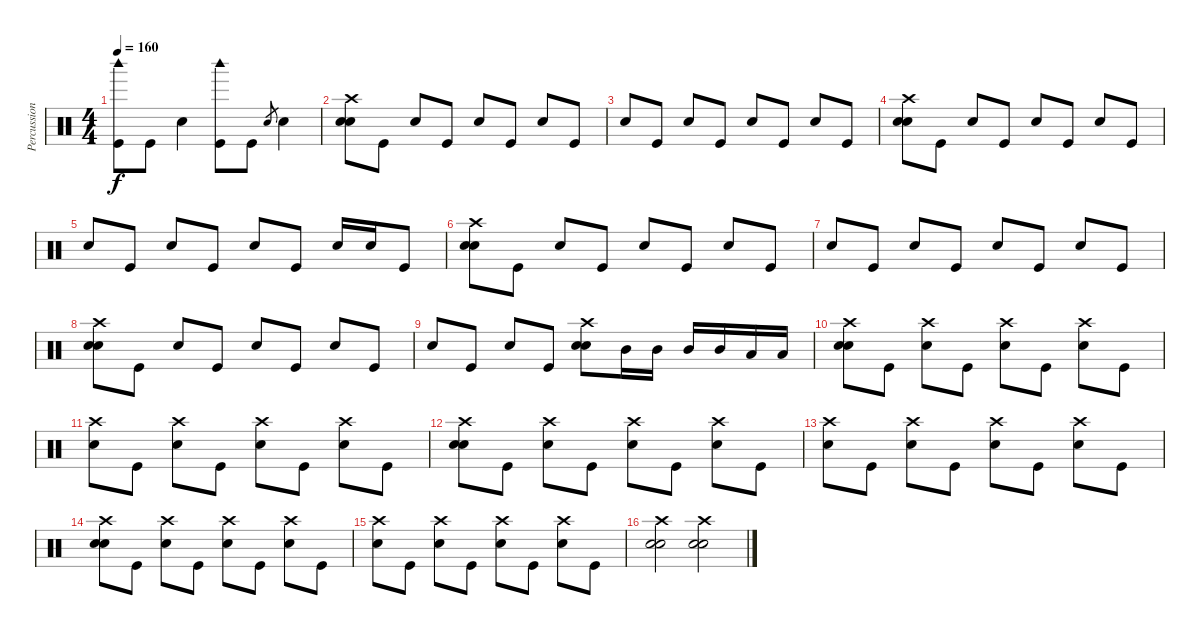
\track ("Percussion" "Percussion") {instrument percussion}
\staff {score}
\articulation defaults
\ts (4 4)
\tempo 160
\clef neutral
\ks c
("Woodblock high (hit)" "Kick (hit)").8{dy f} "Kick (hit)".8 "Snare (hit) 2".4 ("Woodblock high (hit)" "Kick (hit)").8 "Kick (hit)".8 "Electric Snare (hit)".8{gr} "Snare (hit) 2".4 |
("Electric Snare (hit)" "Snare (hit) 2" "Crash high (hit)").8 "Kick (hit)".8 "Snare (hit) 2".8 "Kick (hit)".8 "Snare (hit) 2".8 "Kick (hit)".8 "Snare (hit) 2".8 "Kick (hit)".8 |
"Snare (hit) 2".8 "Kick (hit)".8 "Snare (hit) 2".8 "Kick (hit)".8 "Snare (hit) 2".8 "Kick (hit)".8 "Snare (hit) 2".8 "Kick (hit)".8 |
("Electric Snare (hit)" "Snare (hit) 2" "Crash high (hit)").8 "Kick (hit)".8 "Snare (hit) 2".8 "Kick (hit)".8 "Snare (hit) 2".8 "Kick (hit)".8 "Snare (hit) 2".8 "Kick (hit)".8 |
"Snare (hit) 2".8 "Kick (hit)".8 "Snare (hit) 2".8 "Kick (hit)".8 "Snare (hit) 2".8 "Kick (hit)".8 "Snare (hit) 2".16 "Snare (hit) 2".16 "Kick (hit)".8 |
("Electric Snare (hit)" "Snare (hit) 2" "Crash high (hit)").8 "Kick (hit)".8 "Snare (hit) 2".8 "Kick (hit)".8 "Snare (hit) 2".8 "Kick (hit)".8 "Snare (hit) 2".8 "Kick (hit)".8 |
"Snare (hit) 2".8 "Kick (hit)".8 "Snare (hit) 2".8 "Kick (hit)".8 "Snare (hit) 2".8 "Kick (hit)".8 "Snare (hit) 2".8 "Kick (hit)".8 |
("Electric Snare (hit)" "Snare (hit) 2" "Crash high (hit)").8 "Kick (hit)".8 "Snare (hit) 2".8 "Kick (hit)".8 "Snare (hit) 2".8 "Kick (hit)".8 "Snare (hit) 2".8 "Kick (hit)".8 |
"Snare (hit) 2".8 "Kick (hit)".8 "Snare (hit) 2".8 "Kick (hit)".8 ("Crash high (hit)" "Snare (hit) 2" "Electric Snare (hit)").8 "Mid Tom (hit)".16 "Mid Tom (hit)".16 "Mid Tom (hit)".16 "Mid Tom (hit)".16 "Low Tom (hit)".16 "Low Tom (hit)".16 |
("Crash high (hit)" "Snare (hit) 2" "Electric Snare (hit)").8 "Kick (hit)".8 ("Snare (hit) 2" "Crash high (hit)").8 "Kick (hit)".8 ("Snare (hit) 2" "Crash high (hit)").8 "Kick (hit)".8 ("Snare (hit) 2" "Crash high (hit)").8 "Kick (hit)".8 |
("Snare (hit) 2" "Crash high (hit)").8 "Kick (hit)".8 ("Snare (hit) 2" "Crash high (hit)").8 "Kick (hit)".8 ("Snare (hit) 2" "Crash high (hit)").8 "Kick (hit)".8 ("Snare (hit) 2" "Crash high (hit)").8 "Kick (hit)".8 |
("Crash high (hit)" "Snare (hit) 2" "Electric Snare (hit)").8 "Kick (hit)".8 ("Snare (hit) 2" "Crash high (hit)").8 "Kick (hit)".8 ("Snare (hit) 2" "Crash high (hit)").8 "Kick (hit)".8 ("Snare (hit) 2" "Crash high (hit)").8 "Kick (hit)".8 |
("Snare (hit) 2" "Crash high (hit)").8 "Kick (hit)".8 ("Snare (hit) 2" "Crash high (hit)").8 "Kick (hit)".8 ("Snare (hit) 2" "Crash high (hit)").8 "Kick (hit)".8 ("Snare (hit) 2" "Crash high (hit)").8 "Kick (hit)".8 |
("Crash high (hit)" "Snare (hit) 2" "Electric Snare (hit)").8 "Kick (hit)".8 ("Snare (hit) 2" "Crash high (hit)").8 "Kick (hit)".8 ("Snare (hit) 2" "Crash high (hit)").8 "Kick (hit)".8 ("Snare (hit) 2" "Crash high (hit)").8 "Kick (hit)".8 |
("Snare (hit) 2" "Crash high (hit)").8 "Kick (hit)".8 ("Snare (hit) 2" "Crash high (hit)").8 "Kick (hit)".8 ("Snare (hit) 2" "Crash high (hit)").8 "Kick (hit)".8 ("Snare (hit) 2" "Crash high (hit)").8 "Kick (hit)".8 |
("Crash high (hit)" "Snare (hit) 2" "Electric Snare (hit)").2 ("Crash high (hit)" "Snare (hit) 2" "Electric Snare (hit)").2
